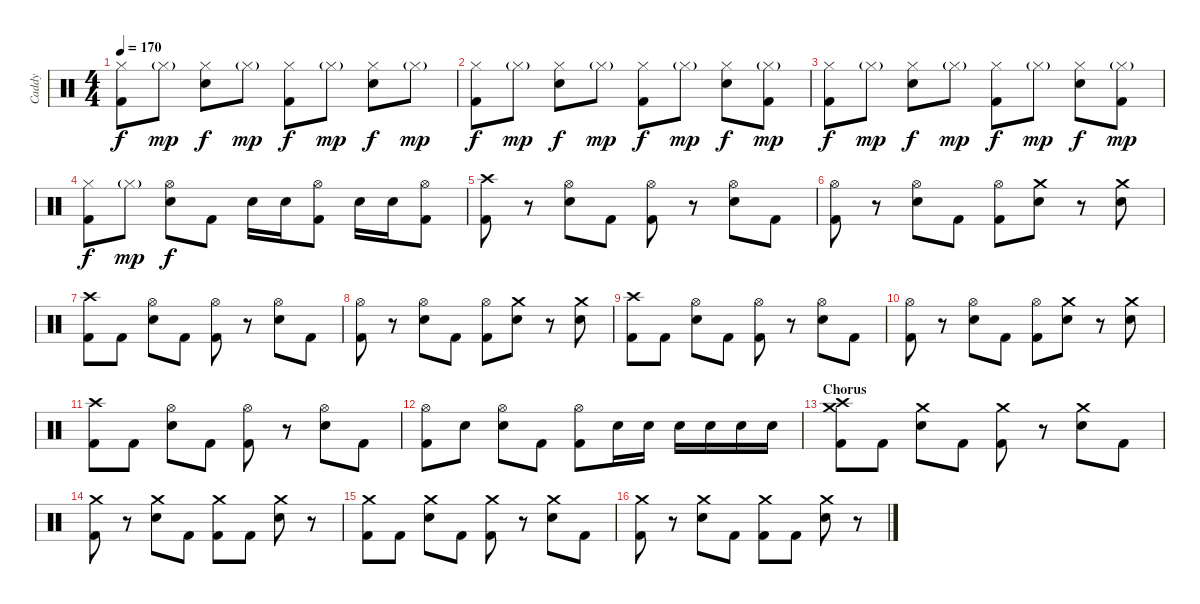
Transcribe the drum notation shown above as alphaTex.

\track ("Caddy" "Caddy") {instrument percussion}
\staff {score}
\articulation defaults
\ts (4 4)
\tempo 170
\clef neutral
\ks c
("Hi-Hat (closed)" "Kick (hit) 2").8{dy f} "Hi-Hat (closed)"{g}.8{dy mp} ("Hi-Hat (closed)" "Electric Snare (hit)").8{dy f} "Hi-Hat (closed)"{g}.8{dy mp} ("Hi-Hat (closed)" "Kick (hit) 2").8{dy f} "Hi-Hat (closed)"{g}.8{dy mp} ("Hi-Hat (closed)" "Electric Snare (hit)").8{dy f} "Hi-Hat (closed)"{g}.8{dy mp} |
("Hi-Hat (closed)" "Kick (hit) 2").8{dy f} "Hi-Hat (closed)"{g}.8{dy mp} ("Hi-Hat (closed)" "Electric Snare (hit)").8{dy f} "Hi-Hat (closed)"{g}.8{dy mp} ("Hi-Hat (closed)" "Kick (hit) 2").8{dy f} "Hi-Hat (closed)"{g}.8{dy mp} ("Hi-Hat (closed)" "Electric Snare (hit)").8{dy f} ("Hi-Hat (closed)"{g} "Kick (hit) 2").8{dy mp} |
("Hi-Hat (closed)" "Kick (hit) 2").8{dy f} "Hi-Hat (closed)"{g}.8{dy mp} ("Hi-Hat (closed)" "Electric Snare (hit)").8{dy f} "Hi-Hat (closed)"{g}.8{dy mp} ("Hi-Hat (closed)" "Kick (hit) 2").8{dy f} "Hi-Hat (closed)"{g}.8{dy mp} ("Hi-Hat (closed)" "Electric Snare (hit)").8{dy f} ("Hi-Hat (closed)"{g} "Kick (hit) 2").8{dy mp} |
("Hi-Hat (closed)" "Kick (hit) 2").8{dy f} "Hi-Hat (closed)"{g}.8{dy mp} ("Hi-Hat (open)" "Electric Snare (hit)").8{dy f} "Kick (hit) 2".8 "Electric Snare (hit)".16 "Electric Snare (hit)".16 ("Hi-Hat (open)" "Kick (hit) 2").8 "Electric Snare (hit)".16 "Electric Snare (hit)".16 ("Hi-Hat (open)" "Kick (hit) 2").8 |
("Crash high (hit)" "Kick (hit) 2").8 r.8 ("Hi-Hat (open)" "Electric Snare (hit)").8 "Kick (hit) 2".8 ("Hi-Hat (open)" "Kick (hit) 2").8 r.8 ("Hi-Hat (open)" "Electric Snare (hit)").8 "Kick (hit) 2".8 |
("Hi-Hat (open)" "Kick (hit) 2").8 r.8 ("Hi-Hat (open)" "Electric Snare (hit)").8 "Kick (hit) 2".8 ("Hi-Hat (open)" "Kick (hit) 2").8 ("Crash medium (hit)" "Electric Snare (hit)").8 r.8 ("Crash medium (hit)" "Electric Snare (hit)").8 |
("Crash high (hit)" "Kick (hit) 2").8 "Kick (hit) 2".8 ("Hi-Hat (open)" "Electric Snare (hit)").8 "Kick (hit) 2".8 ("Hi-Hat (open)" "Kick (hit) 2").8 r.8 ("Hi-Hat (open)" "Electric Snare (hit)").8 "Kick (hit) 2".8 |
("Hi-Hat (open)" "Kick (hit) 2").8 r.8 ("Hi-Hat (open)" "Electric Snare (hit)").8 "Kick (hit) 2".8 ("Hi-Hat (open)" "Kick (hit) 2").8 ("Crash medium (hit)" "Electric Snare (hit)").8 r.8 ("Crash medium (hit)" "Electric Snare (hit)").8 |
("Crash high (hit)" "Kick (hit) 2").8 "Kick (hit) 2".8 ("Hi-Hat (open)" "Electric Snare (hit)").8 "Kick (hit) 2".8 ("Hi-Hat (open)" "Kick (hit) 2").8 r.8 ("Hi-Hat (open)" "Electric Snare (hit)").8 "Kick (hit) 2".8 |
("Hi-Hat (open)" "Kick (hit) 2").8 r.8 ("Hi-Hat (open)" "Electric Snare (hit)").8 "Kick (hit) 2".8 ("Hi-Hat (open)" "Kick (hit) 2").8 ("Crash medium (hit)" "Electric Snare (hit)").8 r.8 ("Crash medium (hit)" "Electric Snare (hit)").8 |
("Crash high (hit)" "Kick (hit) 2").8 "Kick (hit) 2".8 ("Hi-Hat (open)" "Electric Snare (hit)").8 "Kick (hit) 2".8 ("Hi-Hat (open)" "Kick (hit) 2").8 r.8 ("Hi-Hat (open)" "Electric Snare (hit)").8 "Kick (hit) 2".8 |
("Hi-Hat (open)" "Kick (hit) 2").8 "Electric Snare (hit)".8 ("Hi-Hat (open)" "Electric Snare (hit)").8 "Kick (hit) 2".8 ("Hi-Hat (open)" "Kick (hit) 2").8 "Electric Snare (hit)".16 "Electric Snare (hit)".16 "Electric Snare (hit)".16 "Electric Snare (hit)".16 "Electric Snare (hit)".16 "Electric Snare (hit)".16 |
\section ("" "Chorus")
("Crash high (hit)" "Crash medium (hit)" "Kick (hit) 2").8 "Kick (hit) 2".8 ("Crash medium (hit)" "Electric Snare (hit)").8 "Kick (hit) 2".8 ("Crash medium (hit)" "Kick (hit) 2").8 r.8 ("Crash medium (hit)" "Electric Snare (hit)").8 "Kick (hit) 2".8 |
("Crash medium (hit)" "Kick (hit) 2").8 r.8 ("Crash medium (hit)" "Electric Snare (hit)").8 "Kick (hit) 2".8 ("Crash medium (hit)" "Kick (hit) 2").8 "Kick (hit) 2".8 ("Crash medium (hit)" "Electric Snare (hit)").8 r.8 |
("Crash medium (hit)" "Kick (hit) 2").8 "Kick (hit) 2".8 ("Crash medium (hit)" "Electric Snare (hit)").8 "Kick (hit) 2".8 ("Crash medium (hit)" "Kick (hit) 2").8 r.8 ("Crash medium (hit)" "Electric Snare (hit)").8 "Kick (hit) 2".8 |
("Crash medium (hit)" "Kick (hit) 2").8 r.8 ("Crash medium (hit)" "Electric Snare (hit)").8 "Kick (hit) 2".8 ("Crash medium (hit)" "Kick (hit) 2").8 "Kick (hit) 2".8 ("Crash medium (hit)" "Electric Snare (hit)").8 r.8
